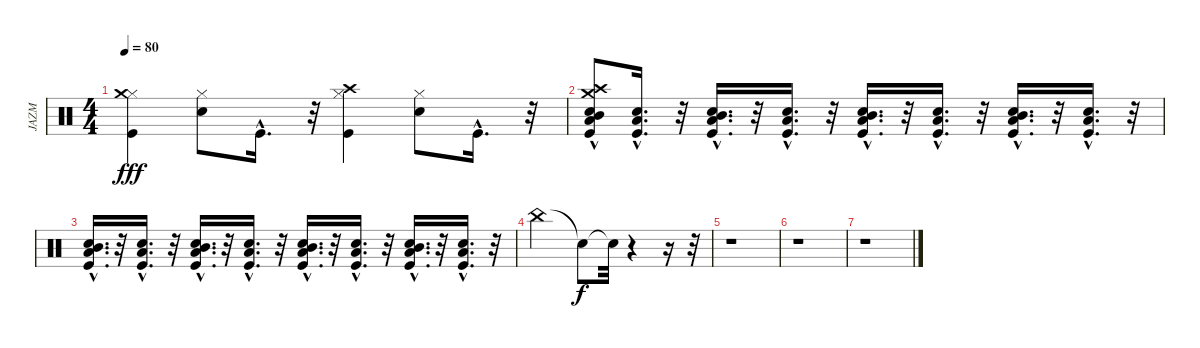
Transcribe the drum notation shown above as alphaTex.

\track ("JAZM" "JAZM") {instrument percussion}
\staff {score}
\articulation defaults
\ts (4 4)
\tempo 80
\clef neutral
\ks c
("Hi-Hat (closed)" "Kick (hit)" "Crash medium (hit)").4{dy fff} ("Hi-Hat (closed)" "Snare (hit) 2").8 "Kick (hit)"{hac}.16{d} r.32 ("Hi-Hat (closed)" "Kick (hit)" "Crash high (hit)").4 ("Hi-Hat (closed)" "Snare (hit) 2").8 "Kick (hit)"{hac}.16{d} r.32 |
("Kick (hit)"{hac} "Mid Tom (hit)"{hac} "Low Tom (hit)"{hac} "Snare (hit) 2" "Crash medium (hit)" "Crash high (hit)").8 ("Kick (hit)"{hac} "Low Tom (hit)"{hac} "Snare (hit) 2"{hac}).16{d} r.32 ("Kick (hit)"{hac} "Mid Tom (hit)"{hac} "Low Tom (hit)"{hac} "Snare (hit) 2"{hac}).16{d} r.32 ("Kick (hit)"{hac} "Low Tom (hit)"{hac} "Snare (hit) 2"{hac}).16{d} r.32 ("Kick (hit)"{hac} "Mid Tom (hit)"{hac} "Low Tom (hit)"{hac} "Snare (hit) 2"{hac}).16{d} r.32 ("Kick (hit)"{hac} "Low Tom (hit)"{hac} "Snare (hit) 2"{hac}).16{d} r.32 ("Kick (hit)"{hac} "Mid Tom (hit)"{hac} "Low Tom (hit)"{hac} "Snare (hit) 2"{hac}).16{d} r.32 ("Kick (hit)"{hac} "Low Tom (hit)"{hac} "Snare (hit) 2"{hac}).16{d} r.32 |
("Kick (hit)"{hac} "Mid Tom (hit)"{hac} "Low Tom (hit)"{hac} "Snare (hit) 2"{hac}).16{d} r.32 ("Kick (hit)"{hac} "Low Tom (hit)"{hac} "Snare (hit) 2"{hac}).16{d} r.32 ("Kick (hit)"{hac} "Mid Tom (hit)"{hac} "Low Tom (hit)"{hac} "Snare (hit) 2"{hac}).16{d} r.32 ("Kick (hit)"{hac} "Low Tom (hit)"{hac} "Snare (hit) 2"{hac}).16{d} r.32 ("Kick (hit)"{hac} "Mid Tom (hit)"{hac} "Low Tom (hit)"{hac} "Snare (hit) 2"{hac}).16{d} r.32 ("Kick (hit)"{hac} "Low Tom (hit)"{hac} "Snare (hit) 2"{hac}).16{d} r.32 ("Kick (hit)"{hac} "Mid Tom (hit)"{hac} "Low Tom (hit)"{hac} "Snare (hit) 2"{hac}).16{d} r.32 ("Kick (hit)"{hac} "Low Tom (hit)"{hac} "Snare (hit) 2"{hac}).16{d} r.32 |
"China (hit)".2 "Snare (hit)"{t}.8{dy f} "Snare (hit)"{t}.32 r.4 r.16 r.32 |
r.1 |
r.1 |
r.1
